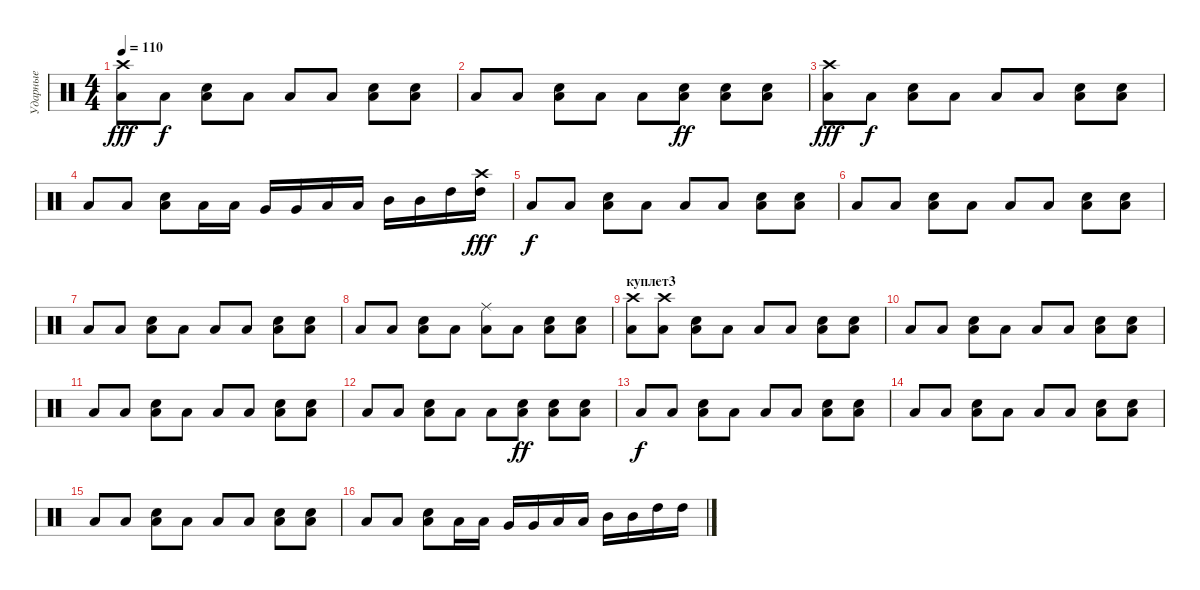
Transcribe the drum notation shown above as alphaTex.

\track ("Ударные" "Ударные") {instrument percussion}
\staff {score}
\articulation defaults
\ts (4 4)
\section ("" "")
\tempo 110
\clef neutral
\ks c
("Crash high (hit)" "Low Floor Tom (hit)").8{dy fff} "Low Floor Tom (hit)".8{dy f} ("Snare (hit) 2" "Low Floor Tom (hit)").8 "Low Floor Tom (hit)".8 "Low Floor Tom (hit)".8 "Low Floor Tom (hit)".8 ("Snare (hit) 2" "Low Floor Tom (hit)").8 ("Snare (hit) 2" "Low Floor Tom (hit)").8 |
"Low Floor Tom (hit)".8 "Low Floor Tom (hit)".8 ("Snare (hit) 2" "Low Floor Tom (hit)").8 "Low Floor Tom (hit)".8 "Low Floor Tom (hit)".8 ("Snare (hit) 2" "Low Floor Tom (hit)").8{dy ff} ("Snare (hit) 2" "Low Floor Tom (hit)").8 ("Snare (hit) 2" "Low Floor Tom (hit)").8 |
("Crash high (hit)" "Low Floor Tom (hit)").8{dy fff} "Low Floor Tom (hit)".8{dy f} ("Snare (hit) 2" "Low Floor Tom (hit)").8 "Low Floor Tom (hit)".8 "Low Floor Tom (hit)".8 "Low Floor Tom (hit)".8 ("Snare (hit) 2" "Low Floor Tom (hit)").8 ("Snare (hit) 2" "Low Floor Tom (hit)").8 |
"Low Floor Tom (hit)".8 "Low Floor Tom (hit)".8 ("Snare (hit) 2" "Low Floor Tom (hit)").8 "Low Floor Tom (hit)".16 "Low Floor Tom (hit)".16 "Very Low Tom (hit)".16 "Very Low Tom (hit)".16 "Low Tom (hit)".16 "Low Tom (hit)".16 "Mid Tom (hit)".16 "Mid Tom (hit)".16 "High Tom (hit)".16 ("Crash high (hit)" "High Tom (hit)").16{dy fff} |
"Low Floor Tom (hit)".8{dy f} "Low Floor Tom (hit)".8 ("Snare (hit) 2" "Low Floor Tom (hit)").8 "Low Floor Tom (hit)".8 "Low Floor Tom (hit)".8 "Low Floor Tom (hit)".8 ("Snare (hit) 2" "Low Floor Tom (hit)").8 ("Snare (hit) 2" "Low Floor Tom (hit)").8 |
"Low Floor Tom (hit)".8 "Low Floor Tom (hit)".8 ("Snare (hit) 2" "Low Floor Tom (hit)").8 "Low Floor Tom (hit)".8 "Low Floor Tom (hit)".8 "Low Floor Tom (hit)".8 ("Snare (hit) 2" "Low Floor Tom (hit)").8 ("Snare (hit) 2" "Low Floor Tom (hit)").8 |
"Low Floor Tom (hit)".8 "Low Floor Tom (hit)".8 ("Snare (hit) 2" "Low Floor Tom (hit)").8 "Low Floor Tom (hit)".8 "Low Floor Tom (hit)".8 "Low Floor Tom (hit)".8 ("Snare (hit) 2" "Low Floor Tom (hit)").8 ("Snare (hit) 2" "Low Floor Tom (hit)").8 |
"Low Floor Tom (hit)".8 "Low Floor Tom (hit)".8 ("Snare (hit) 2" "Low Floor Tom (hit)").8 "Low Floor Tom (hit)".8 ("Ride (middle)" "Low Floor Tom (hit)").8 "Low Floor Tom (hit)".8 ("Snare (hit) 2" "Low Floor Tom (hit)").8 ("Snare (hit) 2" "Low Floor Tom (hit)").8 |
\section ("" "куплет3")
("Crash high (hit)" "Low Floor Tom (hit)").8 ("Crash high (hit)" "Low Floor Tom (hit)").8 ("Snare (hit) 2" "Low Floor Tom (hit)").8 "Low Floor Tom (hit)".8 "Low Floor Tom (hit)".8 "Low Floor Tom (hit)".8 ("Snare (hit) 2" "Low Floor Tom (hit)").8 ("Snare (hit) 2" "Low Floor Tom (hit)").8 |
"Low Floor Tom (hit)".8 "Low Floor Tom (hit)".8 ("Snare (hit) 2" "Low Floor Tom (hit)").8 "Low Floor Tom (hit)".8 "Low Floor Tom (hit)".8 "Low Floor Tom (hit)".8 ("Snare (hit) 2" "Low Floor Tom (hit)").8 ("Snare (hit) 2" "Low Floor Tom (hit)").8 |
"Low Floor Tom (hit)".8 "Low Floor Tom (hit)".8 ("Snare (hit) 2" "Low Floor Tom (hit)").8 "Low Floor Tom (hit)".8 "Low Floor Tom (hit)".8 "Low Floor Tom (hit)".8 ("Snare (hit) 2" "Low Floor Tom (hit)").8 ("Snare (hit) 2" "Low Floor Tom (hit)").8 |
"Low Floor Tom (hit)".8 "Low Floor Tom (hit)".8 ("Snare (hit) 2" "Low Floor Tom (hit)").8 "Low Floor Tom (hit)".8 "Low Floor Tom (hit)".8 ("Snare (hit) 2" "Low Floor Tom (hit)").8{dy ff} ("Snare (hit) 2" "Low Floor Tom (hit)").8 ("Snare (hit) 2" "Low Floor Tom (hit)").8 |
"Low Floor Tom (hit)".8{dy f} "Low Floor Tom (hit)".8 ("Snare (hit) 2" "Low Floor Tom (hit)").8 "Low Floor Tom (hit)".8 "Low Floor Tom (hit)".8 "Low Floor Tom (hit)".8 ("Snare (hit) 2" "Low Floor Tom (hit)").8 ("Snare (hit) 2" "Low Floor Tom (hit)").8 |
"Low Floor Tom (hit)".8 "Low Floor Tom (hit)".8 ("Snare (hit) 2" "Low Floor Tom (hit)").8 "Low Floor Tom (hit)".8 "Low Floor Tom (hit)".8 "Low Floor Tom (hit)".8 ("Snare (hit) 2" "Low Floor Tom (hit)").8 ("Snare (hit) 2" "Low Floor Tom (hit)").8 |
"Low Floor Tom (hit)".8 "Low Floor Tom (hit)".8 ("Snare (hit) 2" "Low Floor Tom (hit)").8 "Low Floor Tom (hit)".8 "Low Floor Tom (hit)".8 "Low Floor Tom (hit)".8 ("Snare (hit) 2" "Low Floor Tom (hit)").8 ("Snare (hit) 2" "Low Floor Tom (hit)").8 |
\section ("" "")
"Low Floor Tom (hit)".8 "Low Floor Tom (hit)".8 ("Snare (hit) 2" "Low Floor Tom (hit)").8 "Low Floor Tom (hit)".16 "Low Floor Tom (hit)".16 "Very Low Tom (hit)".16 "Very Low Tom (hit)".16 "Low Tom (hit)".16 "Low Tom (hit)".16 "Mid Tom (hit)".16 "Mid Tom (hit)".16 "High Tom (hit)".16 "High Tom (hit)".16
